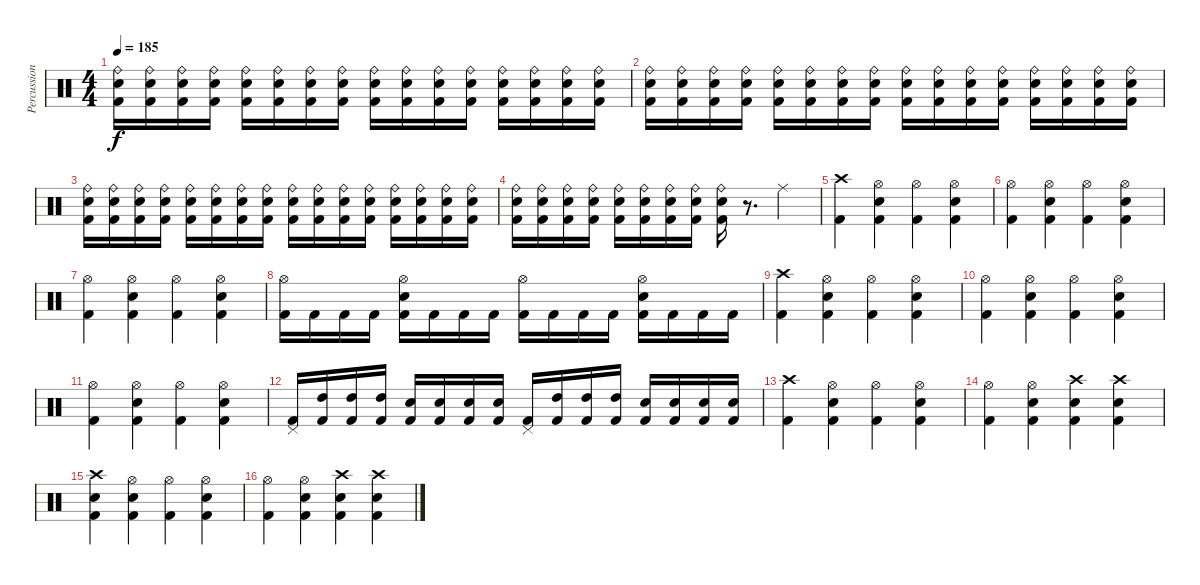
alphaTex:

\track ("Percussion" "Percussion") {instrument percussion}
\staff {score}
\articulation defaults
\ts (4 4)
\tempo 185
\clef neutral
\ks c
("Ride (bell)" "Snare (hit) 2" "Kick (hit) 2").16{dy f} ("Ride (bell)" "Snare (hit) 2" "Kick (hit) 2").16 ("Ride (bell)" "Snare (hit) 2" "Kick (hit) 2").16 ("Ride (bell)" "Snare (hit) 2" "Kick (hit) 2").16 ("Ride (bell)" "Snare (hit) 2" "Kick (hit) 2").16 ("Ride (bell)" "Snare (hit) 2" "Kick (hit) 2").16 ("Ride (bell)" "Snare (hit) 2" "Kick (hit) 2").16 ("Ride (bell)" "Snare (hit) 2" "Kick (hit) 2").16 ("Ride (bell)" "Snare (hit) 2" "Kick (hit) 2").16 ("Ride (bell)" "Snare (hit) 2" "Kick (hit) 2").16 ("Ride (bell)" "Snare (hit) 2" "Kick (hit) 2").16 ("Ride (bell)" "Snare (hit) 2" "Kick (hit) 2").16 ("Ride (bell)" "Snare (hit) 2" "Kick (hit) 2").16 ("Ride (bell)" "Snare (hit) 2" "Kick (hit) 2").16 ("Ride (bell)" "Snare (hit) 2" "Kick (hit) 2").16 ("Ride (bell)" "Snare (hit) 2" "Kick (hit) 2").16 |
("Ride (bell)" "Snare (hit) 2" "Kick (hit) 2").16 ("Ride (bell)" "Snare (hit) 2" "Kick (hit) 2").16 ("Ride (bell)" "Snare (hit) 2" "Kick (hit) 2").16 ("Ride (bell)" "Snare (hit) 2" "Kick (hit) 2").16 ("Ride (bell)" "Snare (hit) 2" "Kick (hit) 2").16 ("Ride (bell)" "Snare (hit) 2" "Kick (hit) 2").16 ("Ride (bell)" "Snare (hit) 2" "Kick (hit) 2").16 ("Ride (bell)" "Snare (hit) 2" "Kick (hit) 2").16 ("Ride (bell)" "Snare (hit) 2" "Kick (hit) 2").16 ("Ride (bell)" "Snare (hit) 2" "Kick (hit) 2").16 ("Ride (bell)" "Snare (hit) 2" "Kick (hit) 2").16 ("Ride (bell)" "Snare (hit) 2" "Kick (hit) 2").16 ("Ride (bell)" "Snare (hit) 2" "Kick (hit) 2").16 ("Ride (bell)" "Snare (hit) 2" "Kick (hit) 2").16 ("Ride (bell)" "Snare (hit) 2" "Kick (hit) 2").16 ("Ride (bell)" "Snare (hit) 2" "Kick (hit) 2").16 |
("Ride (bell)" "Snare (hit) 2" "Kick (hit) 2").16 ("Ride (bell)" "Snare (hit) 2" "Kick (hit) 2").16 ("Ride (bell)" "Snare (hit) 2" "Kick (hit) 2").16 ("Ride (bell)" "Snare (hit) 2" "Kick (hit) 2").16 ("Ride (bell)" "Snare (hit) 2" "Kick (hit) 2").16 ("Ride (bell)" "Snare (hit) 2" "Kick (hit) 2").16 ("Ride (bell)" "Snare (hit) 2" "Kick (hit) 2").16 ("Ride (bell)" "Snare (hit) 2" "Kick (hit) 2").16 ("Ride (bell)" "Snare (hit) 2" "Kick (hit) 2").16 ("Ride (bell)" "Snare (hit) 2" "Kick (hit) 2").16 ("Ride (bell)" "Snare (hit) 2" "Kick (hit) 2").16 ("Ride (bell)" "Snare (hit) 2" "Kick (hit) 2").16 ("Ride (bell)" "Snare (hit) 2" "Kick (hit) 2").16 ("Ride (bell)" "Snare (hit) 2" "Kick (hit) 2").16 ("Ride (bell)" "Snare (hit) 2" "Kick (hit) 2").16 ("Ride (bell)" "Snare (hit) 2" "Kick (hit) 2").16 |
("Ride (bell)" "Snare (hit) 2" "Kick (hit) 2").16 ("Ride (bell)" "Snare (hit) 2" "Kick (hit) 2").16 ("Ride (bell)" "Snare (hit) 2" "Kick (hit) 2").16 ("Ride (bell)" "Snare (hit) 2" "Kick (hit) 2").16 ("Ride (bell)" "Snare (hit) 2" "Kick (hit) 2").16 ("Ride (bell)" "Snare (hit) 2" "Kick (hit) 2").16 ("Ride (bell)" "Snare (hit) 2" "Kick (hit) 2").16 ("Ride (bell)" "Snare (hit) 2" "Kick (hit) 2").16 ("Ride (bell)" "Snare (hit) 2" "Kick (hit) 2").16 r.8{d} "Ride (middle)".4 |
("Crash high (hit)" "Kick (hit) 2").4 ("Hi-Hat (open)" "Snare (hit) 2" "Kick (hit) 2").4 ("Hi-Hat (open)" "Kick (hit) 2").4 ("Hi-Hat (open)" "Snare (hit) 2" "Kick (hit) 2").4 |
("Hi-Hat (open)" "Kick (hit) 2").4 ("Hi-Hat (open)" "Snare (hit) 2" "Kick (hit) 2").4 ("Hi-Hat (open)" "Kick (hit) 2").4 ("Hi-Hat (open)" "Snare (hit) 2" "Kick (hit) 2").4 |
("Hi-Hat (open)" "Kick (hit) 2").4 ("Hi-Hat (open)" "Snare (hit) 2" "Kick (hit) 2").4 ("Hi-Hat (open)" "Kick (hit) 2").4 ("Hi-Hat (open)" "Snare (hit) 2" "Kick (hit) 2").4 |
("Hi-Hat (open)" "Kick (hit) 2").16 "Kick (hit) 2".16 "Kick (hit) 2".16 "Kick (hit) 2".16 ("Hi-Hat (open)" "Snare (hit) 2" "Kick (hit) 2").16 "Kick (hit) 2".16 "Kick (hit) 2".16 "Kick (hit) 2".16 ("Hi-Hat (open)" "Kick (hit) 2").16 "Kick (hit) 2".16 "Kick (hit) 2".16 "Kick (hit) 2".16 ("Hi-Hat (open)" "Snare (hit) 2" "Kick (hit) 2").16 "Kick (hit) 2".16 "Kick (hit) 2".16 "Kick (hit) 2".16 |
("Crash high (hit)" "Kick (hit) 2").4 ("Hi-Hat (open)" "Snare (hit) 2" "Kick (hit) 2").4 ("Hi-Hat (open)" "Kick (hit) 2").4 ("Hi-Hat (open)" "Snare (hit) 2" "Kick (hit) 2").4 |
("Hi-Hat (open)" "Kick (hit) 2").4 ("Hi-Hat (open)" "Snare (hit) 2" "Kick (hit) 2").4 ("Hi-Hat (open)" "Kick (hit) 2").4 ("Hi-Hat (open)" "Snare (hit) 2" "Kick (hit) 2").4 |
("Hi-Hat (open)" "Kick (hit) 2").4 ("Hi-Hat (open)" "Snare (hit) 2" "Kick (hit) 2").4 ("Hi-Hat (open)" "Kick (hit) 2").4 ("Hi-Hat (open)" "Snare (hit) 2" "Kick (hit) 2").4 |
("Pedal Hi-Hat (hit)" "Kick (hit) 2").16 ("High Tom (hit)" "Kick (hit) 2").16 ("High Tom (hit)" "Kick (hit) 2").16 ("High Tom (hit)" "Kick (hit) 2").16 ("Snare (hit) 2" "Kick (hit) 2").16 ("Snare (hit) 2" "Kick (hit) 2").16 ("Snare (hit) 2" "Kick (hit) 2").16 ("Snare (hit) 2" "Kick (hit) 2").16 ("Pedal Hi-Hat (hit)" "Kick (hit) 2").16 ("High Tom (hit)" "Kick (hit) 2").16 ("High Tom (hit)" "Kick (hit) 2").16 ("High Tom (hit)" "Kick (hit) 2").16 ("Snare (hit) 2" "Kick (hit) 2").16 ("Snare (hit) 2" "Kick (hit) 2").16 ("Snare (hit) 2" "Kick (hit) 2").16 ("Snare (hit) 2" "Kick (hit) 2").16 |
("Crash high (hit)" "Kick (hit) 2").4 ("Hi-Hat (open)" "Snare (hit) 2" "Kick (hit) 2").4 ("Hi-Hat (open)" "Kick (hit) 2").4 ("Hi-Hat (open)" "Snare (hit) 2" "Kick (hit) 2").4 |
("Hi-Hat (open)" "Kick (hit) 2").4 ("Hi-Hat (open)" "Snare (hit) 2" "Kick (hit) 2").4 ("Crash high (hit)" "Snare (hit) 2" "Kick (hit) 2").4 ("Crash high (hit)" "Snare (hit) 2" "Kick (hit) 2").4 |
("Crash high (hit)" "Snare (hit) 2" "Kick (hit) 2").4 ("Hi-Hat (open)" "Snare (hit) 2" "Kick (hit) 2").4 ("Hi-Hat (open)" "Kick (hit) 2").4 ("Hi-Hat (open)" "Snare (hit) 2" "Kick (hit) 2").4 |
("Hi-Hat (open)" "Kick (hit) 2").4 ("Hi-Hat (open)" "Snare (hit) 2" "Kick (hit) 2").4 ("Crash high (hit)" "Snare (hit) 2" "Kick (hit) 2").4 ("Crash high (hit)" "Snare (hit) 2" "Kick (hit) 2").4
